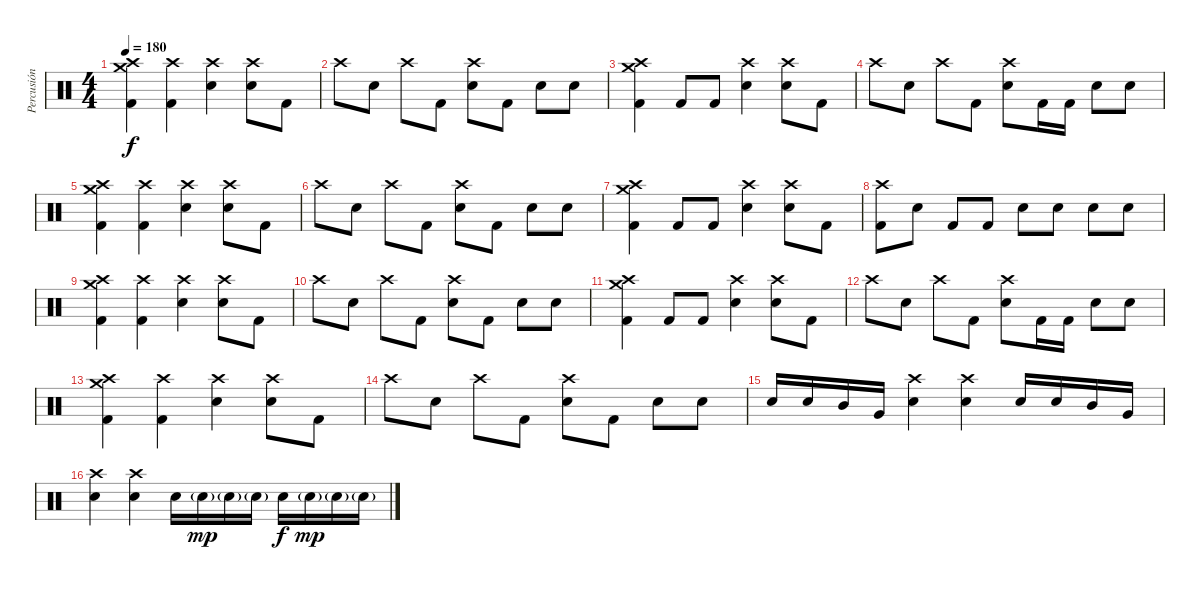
\track ("Percusión" "Percusión") {instrument percussion}
\staff {score}
\articulation defaults
\ts (4 4)
\tempo 180
\clef neutral
\ks c
("Crash high (hit)" "Crash medium (hit)" "Kick (hit) 2").4{dy f} ("Crash high (hit)" "Kick (hit) 2").4 ("Crash high (hit)" "Electric Snare (hit)").4 ("Crash high (hit)" "Electric Snare (hit)").8 "Kick (hit) 2".8 |
"Crash high (hit)".8 "Electric Snare (hit)".8 "Crash high (hit)".8 "Kick (hit) 2".8 ("Crash high (hit)" "Electric Snare (hit)").8 "Kick (hit) 2".8 "Electric Snare (hit)".8 "Electric Snare (hit)".8 |
("Crash high (hit)" "Crash medium (hit)" "Kick (hit) 2").4 "Kick (hit) 2".8 "Kick (hit) 2".8 ("Crash high (hit)" "Electric Snare (hit)").4 ("Crash high (hit)" "Electric Snare (hit)").8 "Kick (hit) 2".8 |
"Crash high (hit)".8 "Electric Snare (hit)".8 "Crash high (hit)".8 "Kick (hit) 2".8 ("Crash high (hit)" "Electric Snare (hit)").8 "Kick (hit) 2".16 "Kick (hit) 2".16 "Electric Snare (hit)".8 "Electric Snare (hit)".8 |
("Crash high (hit)" "Crash medium (hit)" "Kick (hit) 2").4 ("Crash high (hit)" "Kick (hit) 2").4 ("Crash high (hit)" "Electric Snare (hit)").4 ("Crash high (hit)" "Electric Snare (hit)").8 "Kick (hit) 2".8 |
"Crash high (hit)".8 "Electric Snare (hit)".8 "Crash high (hit)".8 "Kick (hit) 2".8 ("Crash high (hit)" "Electric Snare (hit)").8 "Kick (hit) 2".8 "Electric Snare (hit)".8 "Electric Snare (hit)".8 |
("Crash high (hit)" "Crash medium (hit)" "Kick (hit) 2").4 "Kick (hit) 2".8 "Kick (hit) 2".8 ("Crash high (hit)" "Electric Snare (hit)").4 ("Crash high (hit)" "Electric Snare (hit)").8 "Kick (hit) 2".8 |
("Crash high (hit)" "Kick (hit) 2").8 "Electric Snare (hit)".8 "Kick (hit) 2".8 "Kick (hit) 2".8 "Electric Snare (hit)".8 "Electric Snare (hit)".8 "Electric Snare (hit)".8 "Electric Snare (hit)".8 |
("Crash high (hit)" "Crash medium (hit)" "Kick (hit) 2").4 ("Crash high (hit)" "Kick (hit) 2").4 ("Crash high (hit)" "Electric Snare (hit)").4 ("Crash high (hit)" "Electric Snare (hit)").8 "Kick (hit) 2".8 |
"Crash high (hit)".8 "Electric Snare (hit)".8 "Crash high (hit)".8 "Kick (hit) 2".8 ("Crash high (hit)" "Electric Snare (hit)").8 "Kick (hit) 2".8 "Electric Snare (hit)".8 "Electric Snare (hit)".8 |
("Crash high (hit)" "Crash medium (hit)" "Kick (hit) 2").4 "Kick (hit) 2".8 "Kick (hit) 2".8 ("Crash high (hit)" "Electric Snare (hit)").4 ("Crash high (hit)" "Electric Snare (hit)").8 "Kick (hit) 2".8 |
"Crash high (hit)".8 "Electric Snare (hit)".8 "Crash high (hit)".8 "Kick (hit) 2".8 ("Crash high (hit)" "Electric Snare (hit)").8 "Kick (hit) 2".16 "Kick (hit) 2".16 "Electric Snare (hit)".8 "Electric Snare (hit)".8 |
("Crash high (hit)" "Crash medium (hit)" "Kick (hit) 2").4 ("Crash high (hit)" "Kick (hit) 2").4 ("Crash high (hit)" "Electric Snare (hit)").4 ("Crash high (hit)" "Electric Snare (hit)").8 "Kick (hit) 2".8 |
"Crash high (hit)".8 "Electric Snare (hit)".8 "Crash high (hit)".8 "Kick (hit) 2".8 ("Crash high (hit)" "Electric Snare (hit)").8 "Kick (hit) 2".8 "Electric Snare (hit)".8 "Electric Snare (hit)".8 |
"Electric Snare (hit)".16 "Electric Snare (hit)".16 "Mid Tom (hit)".16 "Very Low Tom (hit)".16 ("Crash high (hit)" "Electric Snare (hit)").4 ("Crash high (hit)" "Electric Snare (hit)").4 "Electric Snare (hit)".16 "Electric Snare (hit)".16 "Mid Tom (hit)".16 "Very Low Tom (hit)".16 |
("Crash high (hit)" "Electric Snare (hit)").4 ("Crash high (hit)" "Electric Snare (hit)").4 "Electric Snare (hit)".16 "Electric Snare (hit)"{g}.16{dy mp} "Electric Snare (hit)"{g}.16 "Electric Snare (hit)"{g}.16 "Electric Snare (hit)".16{dy f} "Electric Snare (hit)"{g}.16{dy mp} "Electric Snare (hit)"{g}.16 "Electric Snare (hit)"{g}.16
